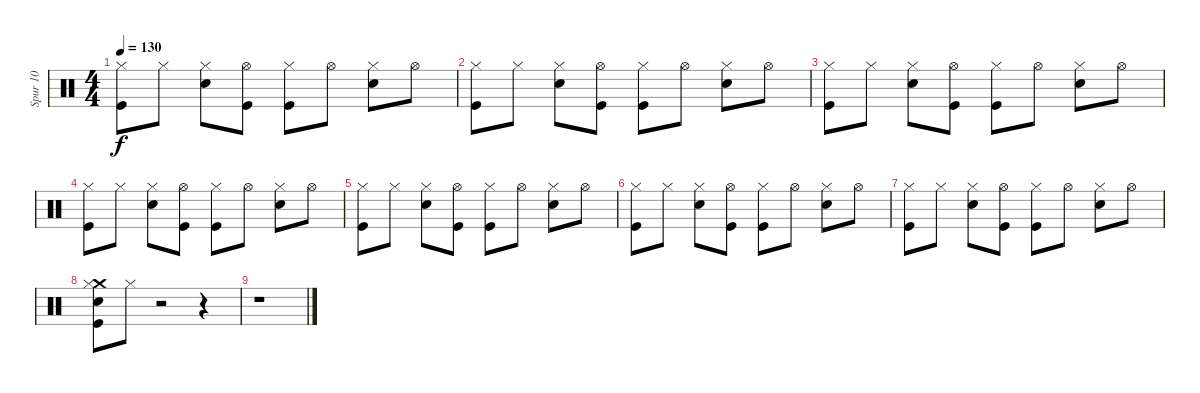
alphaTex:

\track ("Spur 10" "Spur 10") {instrument percussion}
\staff {score}
\articulation defaults
\ts (4 4)
\tempo 130
\clef neutral
\ks c
("Kick (hit)" "Hi-Hat (closed)").8{dy f} "Hi-Hat (closed)".8 ("Snare (hit) 2" "Hi-Hat (closed)").8 ("Kick (hit)" "Hi-Hat (open)").8 ("Kick (hit)" "Hi-Hat (closed)").8 "Hi-Hat (open)".8 ("Snare (hit) 2" "Hi-Hat (closed)").8 "Hi-Hat (open)".8 |
("Kick (hit)" "Hi-Hat (closed)").8 "Hi-Hat (closed)".8 ("Snare (hit) 2" "Hi-Hat (closed)").8 ("Kick (hit)" "Hi-Hat (open)").8 ("Kick (hit)" "Hi-Hat (closed)").8 "Hi-Hat (open)".8 ("Snare (hit) 2" "Hi-Hat (closed)").8 "Hi-Hat (open)".8 |
("Kick (hit)" "Hi-Hat (closed)").8 "Hi-Hat (closed)".8 ("Snare (hit) 2" "Hi-Hat (closed)").8 ("Kick (hit)" "Hi-Hat (open)").8 ("Kick (hit)" "Hi-Hat (closed)").8 "Hi-Hat (open)".8 ("Snare (hit) 2" "Hi-Hat (closed)").8 "Hi-Hat (open)".8 |
("Kick (hit)" "Hi-Hat (closed)").8 "Hi-Hat (closed)".8 ("Snare (hit) 2" "Hi-Hat (closed)").8 ("Kick (hit)" "Hi-Hat (open)").8 ("Kick (hit)" "Hi-Hat (closed)").8 "Hi-Hat (open)".8 ("Snare (hit) 2" "Hi-Hat (closed)").8 "Hi-Hat (open)".8 |
("Kick (hit)" "Hi-Hat (closed)").8 "Hi-Hat (closed)".8 ("Snare (hit) 2" "Hi-Hat (closed)").8 ("Kick (hit)" "Hi-Hat (open)").8 ("Kick (hit)" "Hi-Hat (closed)").8 "Hi-Hat (open)".8 ("Snare (hit) 2" "Hi-Hat (closed)").8 "Hi-Hat (open)".8 |
("Kick (hit)" "Hi-Hat (closed)").8 "Hi-Hat (closed)".8 ("Snare (hit) 2" "Hi-Hat (closed)").8 ("Kick (hit)" "Hi-Hat (open)").8 ("Kick (hit)" "Hi-Hat (closed)").8 "Hi-Hat (open)".8 ("Snare (hit) 2" "Hi-Hat (closed)").8 "Hi-Hat (open)".8 |
("Kick (hit)" "Hi-Hat (closed)").8 "Hi-Hat (closed)".8 ("Snare (hit) 2" "Hi-Hat (closed)").8 ("Kick (hit)" "Hi-Hat (open)").8 ("Kick (hit)" "Hi-Hat (closed)").8 "Hi-Hat (open)".8 ("Snare (hit) 2" "Hi-Hat (closed)").8 "Hi-Hat (open)".8 |
("Snare (hit) 2" "Crash medium (hit)" "Kick (hit)" "Hi-Hat (closed)").8 "Hi-Hat (closed)".8 r.2 r.4 |
r.1
